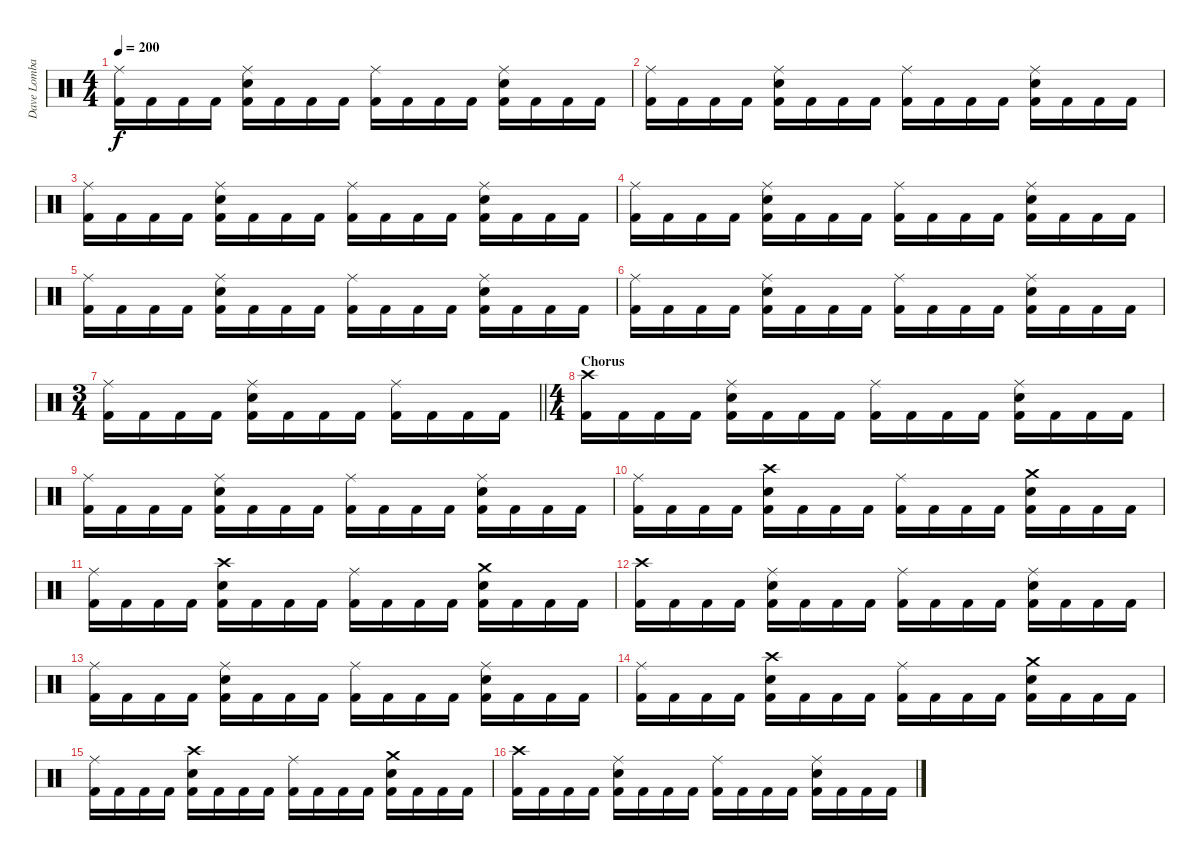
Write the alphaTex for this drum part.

\track ("Dave Lombardo (Drums)" "Dave Lomba") {instrument percussion}
\staff {score}
\articulation defaults
\ts (4 4)
\tempo 200
\clef neutral
\ks c
("Ride (middle)" "Kick (hit) 2").16{dy f} "Kick (hit) 2".16 "Kick (hit) 2".16 "Kick (hit) 2".16 ("Ride (middle)" "Snare (hit) 2" "Kick (hit) 2").16 "Kick (hit) 2".16 "Kick (hit) 2".16 "Kick (hit) 2".16 ("Ride (middle)" "Kick (hit) 2").16 "Kick (hit) 2".16 "Kick (hit) 2".16 "Kick (hit) 2".16 ("Ride (middle)" "Snare (hit) 2" "Kick (hit) 2").16 "Kick (hit) 2".16 "Kick (hit) 2".16 "Kick (hit) 2".16 |
("Ride (middle)" "Kick (hit) 2").16 "Kick (hit) 2".16 "Kick (hit) 2".16 "Kick (hit) 2".16 ("Ride (middle)" "Snare (hit) 2" "Kick (hit) 2").16 "Kick (hit) 2".16 "Kick (hit) 2".16 "Kick (hit) 2".16 ("Ride (middle)" "Kick (hit) 2").16 "Kick (hit) 2".16 "Kick (hit) 2".16 "Kick (hit) 2".16 ("Ride (middle)" "Snare (hit) 2" "Kick (hit) 2").16 "Kick (hit) 2".16 "Kick (hit) 2".16 "Kick (hit) 2".16 |
("Ride (middle)" "Kick (hit) 2").16 "Kick (hit) 2".16 "Kick (hit) 2".16 "Kick (hit) 2".16 ("Ride (middle)" "Snare (hit) 2" "Kick (hit) 2").16 "Kick (hit) 2".16 "Kick (hit) 2".16 "Kick (hit) 2".16 ("Ride (middle)" "Kick (hit) 2").16 "Kick (hit) 2".16 "Kick (hit) 2".16 "Kick (hit) 2".16 ("Ride (middle)" "Snare (hit) 2" "Kick (hit) 2").16 "Kick (hit) 2".16 "Kick (hit) 2".16 "Kick (hit) 2".16 |
("Ride (middle)" "Kick (hit) 2").16 "Kick (hit) 2".16 "Kick (hit) 2".16 "Kick (hit) 2".16 ("Ride (middle)" "Snare (hit) 2" "Kick (hit) 2").16 "Kick (hit) 2".16 "Kick (hit) 2".16 "Kick (hit) 2".16 ("Ride (middle)" "Kick (hit) 2").16 "Kick (hit) 2".16 "Kick (hit) 2".16 "Kick (hit) 2".16 ("Ride (middle)" "Snare (hit) 2" "Kick (hit) 2").16 "Kick (hit) 2".16 "Kick (hit) 2".16 "Kick (hit) 2".16 |
("Ride (middle)" "Kick (hit) 2").16 "Kick (hit) 2".16 "Kick (hit) 2".16 "Kick (hit) 2".16 ("Ride (middle)" "Snare (hit) 2" "Kick (hit) 2").16 "Kick (hit) 2".16 "Kick (hit) 2".16 "Kick (hit) 2".16 ("Ride (middle)" "Kick (hit) 2").16 "Kick (hit) 2".16 "Kick (hit) 2".16 "Kick (hit) 2".16 ("Ride (middle)" "Snare (hit) 2" "Kick (hit) 2").16 "Kick (hit) 2".16 "Kick (hit) 2".16 "Kick (hit) 2".16 |
("Ride (middle)" "Kick (hit) 2").16 "Kick (hit) 2".16 "Kick (hit) 2".16 "Kick (hit) 2".16 ("Ride (middle)" "Snare (hit) 2" "Kick (hit) 2").16 "Kick (hit) 2".16 "Kick (hit) 2".16 "Kick (hit) 2".16 ("Ride (middle)" "Kick (hit) 2").16 "Kick (hit) 2".16 "Kick (hit) 2".16 "Kick (hit) 2".16 ("Ride (middle)" "Snare (hit) 2" "Kick (hit) 2").16 "Kick (hit) 2".16 "Kick (hit) 2".16 "Kick (hit) 2".16 |
\ts (3 4)
\barLineRight lightlight
("Ride (middle)" "Kick (hit) 2").16 "Kick (hit) 2".16 "Kick (hit) 2".16 "Kick (hit) 2".16 ("Ride (middle)" "Snare (hit) 2" "Kick (hit) 2").16 "Kick (hit) 2".16 "Kick (hit) 2".16 "Kick (hit) 2".16 ("Ride (middle)" "Kick (hit) 2").16 "Kick (hit) 2".16 "Kick (hit) 2".16 "Kick (hit) 2".16 |
\ts (4 4)
\section ("" "Chorus")
("Crash high (hit)" "Kick (hit) 2").16 "Kick (hit) 2".16 "Kick (hit) 2".16 "Kick (hit) 2".16 ("Ride (middle)" "Snare (hit) 2" "Kick (hit) 2").16 "Kick (hit) 2".16 "Kick (hit) 2".16 "Kick (hit) 2".16 ("Ride (middle)" "Kick (hit) 2").16 "Kick (hit) 2".16 "Kick (hit) 2".16 "Kick (hit) 2".16 ("Ride (middle)" "Snare (hit) 2" "Kick (hit) 2").16 "Kick (hit) 2".16 "Kick (hit) 2".16 "Kick (hit) 2".16 |
("Ride (middle)" "Kick (hit) 2").16 "Kick (hit) 2".16 "Kick (hit) 2".16 "Kick (hit) 2".16 ("Ride (middle)" "Snare (hit) 2" "Kick (hit) 2").16 "Kick (hit) 2".16 "Kick (hit) 2".16 "Kick (hit) 2".16 ("Ride (middle)" "Kick (hit) 2").16 "Kick (hit) 2".16 "Kick (hit) 2".16 "Kick (hit) 2".16 ("Ride (middle)" "Snare (hit) 2" "Kick (hit) 2").16 "Kick (hit) 2".16 "Kick (hit) 2".16 "Kick (hit) 2".16 |
("Ride (middle)" "Kick (hit) 2").16 "Kick (hit) 2".16 "Kick (hit) 2".16 "Kick (hit) 2".16 ("Crash high (hit)" "Snare (hit) 2" "Kick (hit) 2").16 "Kick (hit) 2".16 "Kick (hit) 2".16 "Kick (hit) 2".16 ("Ride (middle)" "Kick (hit) 2").16 "Kick (hit) 2".16 "Kick (hit) 2".16 "Kick (hit) 2".16 ("Crash medium (hit)" "Snare (hit) 2" "Kick (hit) 2").16 "Kick (hit) 2".16 "Kick (hit) 2".16 "Kick (hit) 2".16 |
("Ride (middle)" "Kick (hit) 2").16 "Kick (hit) 2".16 "Kick (hit) 2".16 "Kick (hit) 2".16 ("Crash high (hit)" "Snare (hit) 2" "Kick (hit) 2").16 "Kick (hit) 2".16 "Kick (hit) 2".16 "Kick (hit) 2".16 ("Ride (middle)" "Kick (hit) 2").16 "Kick (hit) 2".16 "Kick (hit) 2".16 "Kick (hit) 2".16 ("Crash medium (hit)" "Snare (hit) 2" "Kick (hit) 2").16 "Kick (hit) 2".16 "Kick (hit) 2".16 "Kick (hit) 2".16 |
("Crash high (hit)" "Kick (hit) 2").16 "Kick (hit) 2".16 "Kick (hit) 2".16 "Kick (hit) 2".16 ("Ride (middle)" "Snare (hit) 2" "Kick (hit) 2").16 "Kick (hit) 2".16 "Kick (hit) 2".16 "Kick (hit) 2".16 ("Ride (middle)" "Kick (hit) 2").16 "Kick (hit) 2".16 "Kick (hit) 2".16 "Kick (hit) 2".16 ("Ride (middle)" "Snare (hit) 2" "Kick (hit) 2").16 "Kick (hit) 2".16 "Kick (hit) 2".16 "Kick (hit) 2".16 |
("Ride (middle)" "Kick (hit) 2").16 "Kick (hit) 2".16 "Kick (hit) 2".16 "Kick (hit) 2".16 ("Ride (middle)" "Snare (hit) 2" "Kick (hit) 2").16 "Kick (hit) 2".16 "Kick (hit) 2".16 "Kick (hit) 2".16 ("Ride (middle)" "Kick (hit) 2").16 "Kick (hit) 2".16 "Kick (hit) 2".16 "Kick (hit) 2".16 ("Ride (middle)" "Snare (hit) 2" "Kick (hit) 2").16 "Kick (hit) 2".16 "Kick (hit) 2".16 "Kick (hit) 2".16 |
("Ride (middle)" "Kick (hit) 2").16 "Kick (hit) 2".16 "Kick (hit) 2".16 "Kick (hit) 2".16 ("Crash high (hit)" "Snare (hit) 2" "Kick (hit) 2").16 "Kick (hit) 2".16 "Kick (hit) 2".16 "Kick (hit) 2".16 ("Ride (middle)" "Kick (hit) 2").16 "Kick (hit) 2".16 "Kick (hit) 2".16 "Kick (hit) 2".16 ("Crash medium (hit)" "Snare (hit) 2" "Kick (hit) 2").16 "Kick (hit) 2".16 "Kick (hit) 2".16 "Kick (hit) 2".16 |
("Ride (middle)" "Kick (hit) 2").16 "Kick (hit) 2".16 "Kick (hit) 2".16 "Kick (hit) 2".16 ("Crash high (hit)" "Snare (hit) 2" "Kick (hit) 2").16 "Kick (hit) 2".16 "Kick (hit) 2".16 "Kick (hit) 2".16 ("Ride (middle)" "Kick (hit) 2").16 "Kick (hit) 2".16 "Kick (hit) 2".16 "Kick (hit) 2".16 ("Crash medium (hit)" "Snare (hit) 2" "Kick (hit) 2").16 "Kick (hit) 2".16 "Kick (hit) 2".16 "Kick (hit) 2".16 |
("Crash high (hit)" "Kick (hit) 2").16 "Kick (hit) 2".16 "Kick (hit) 2".16 "Kick (hit) 2".16 ("Ride (middle)" "Snare (hit) 2" "Kick (hit) 2").16 "Kick (hit) 2".16 "Kick (hit) 2".16 "Kick (hit) 2".16 ("Ride (middle)" "Kick (hit) 2").16 "Kick (hit) 2".16 "Kick (hit) 2".16 "Kick (hit) 2".16 ("Ride (middle)" "Snare (hit) 2" "Kick (hit) 2").16 "Kick (hit) 2".16 "Kick (hit) 2".16 "Kick (hit) 2".16
